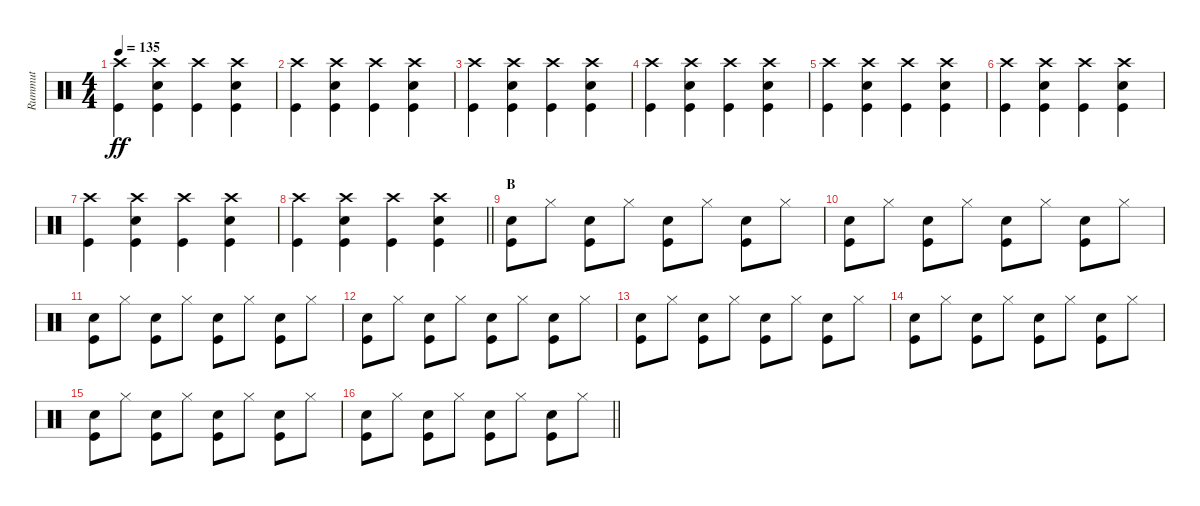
\track ("Rummut" "Rummut") {instrument percussion}
\staff {score}
\articulation defaults
\ts (4 4)
\tempo 135
\clef neutral
\ks c
("Crash high (hit)" "Kick (hit)").4{dy ff} ("Crash high (hit)" "Electric Snare (hit)" "Kick (hit)").4 ("Crash high (hit)" "Kick (hit)").4 ("Crash high (hit)" "Electric Snare (hit)" "Kick (hit)").4 |
("Crash high (hit)" "Kick (hit)").4 ("Crash high (hit)" "Electric Snare (hit)" "Kick (hit)").4 ("Crash high (hit)" "Kick (hit)").4 ("Crash high (hit)" "Electric Snare (hit)" "Kick (hit)").4 |
("Crash high (hit)" "Kick (hit)").4 ("Crash high (hit)" "Electric Snare (hit)" "Kick (hit)").4 ("Crash high (hit)" "Kick (hit)").4 ("Crash high (hit)" "Electric Snare (hit)" "Kick (hit)").4 |
("Crash high (hit)" "Kick (hit)").4 ("Crash high (hit)" "Electric Snare (hit)" "Kick (hit)").4 ("Crash high (hit)" "Kick (hit)").4 ("Crash high (hit)" "Electric Snare (hit)" "Kick (hit)").4 |
("Crash high (hit)" "Kick (hit)").4 ("Crash high (hit)" "Electric Snare (hit)" "Kick (hit)").4 ("Crash high (hit)" "Kick (hit)").4 ("Crash high (hit)" "Electric Snare (hit)" "Kick (hit)").4 |
("Crash high (hit)" "Kick (hit)").4 ("Crash high (hit)" "Electric Snare (hit)" "Kick (hit)").4 ("Crash high (hit)" "Kick (hit)").4 ("Crash high (hit)" "Electric Snare (hit)" "Kick (hit)").4 |
("Crash high (hit)" "Kick (hit)").4 ("Crash high (hit)" "Electric Snare (hit)" "Kick (hit)").4 ("Crash high (hit)" "Kick (hit)").4 ("Crash high (hit)" "Electric Snare (hit)" "Kick (hit)").4 |
\barLineRight lightlight
("Crash high (hit)" "Kick (hit)").4 ("Crash high (hit)" "Electric Snare (hit)" "Kick (hit)").4 ("Crash high (hit)" "Kick (hit)").4 ("Crash high (hit)" "Electric Snare (hit)" "Kick (hit)").4 |
\section ("" "B")
("Electric Snare (hit)" "Kick (hit)").8 "Hi-Hat (closed)".8 ("Electric Snare (hit)" "Kick (hit)").8 "Hi-Hat (closed)".8 ("Electric Snare (hit)" "Kick (hit)").8 "Hi-Hat (closed)".8 ("Electric Snare (hit)" "Kick (hit)").8 "Hi-Hat (closed)".8 |
("Electric Snare (hit)" "Kick (hit)").8 "Hi-Hat (closed)".8 ("Electric Snare (hit)" "Kick (hit)").8 "Hi-Hat (closed)".8 ("Electric Snare (hit)" "Kick (hit)").8 "Hi-Hat (closed)".8 ("Electric Snare (hit)" "Kick (hit)").8 "Hi-Hat (closed)".8 |
("Electric Snare (hit)" "Kick (hit)").8 "Hi-Hat (closed)".8 ("Electric Snare (hit)" "Kick (hit)").8 "Hi-Hat (closed)".8 ("Electric Snare (hit)" "Kick (hit)").8 "Hi-Hat (closed)".8 ("Electric Snare (hit)" "Kick (hit)").8 "Hi-Hat (closed)".8 |
("Electric Snare (hit)" "Kick (hit)").8 "Hi-Hat (closed)".8 ("Electric Snare (hit)" "Kick (hit)").8 "Hi-Hat (closed)".8 ("Electric Snare (hit)" "Kick (hit)").8 "Hi-Hat (closed)".8 ("Electric Snare (hit)" "Kick (hit)").8 "Hi-Hat (closed)".8 |
("Electric Snare (hit)" "Kick (hit)").8 "Hi-Hat (closed)".8 ("Electric Snare (hit)" "Kick (hit)").8 "Hi-Hat (closed)".8 ("Electric Snare (hit)" "Kick (hit)").8 "Hi-Hat (closed)".8 ("Electric Snare (hit)" "Kick (hit)").8 "Hi-Hat (closed)".8 |
("Electric Snare (hit)" "Kick (hit)").8 "Hi-Hat (closed)".8 ("Electric Snare (hit)" "Kick (hit)").8 "Hi-Hat (closed)".8 ("Electric Snare (hit)" "Kick (hit)").8 "Hi-Hat (closed)".8 ("Electric Snare (hit)" "Kick (hit)").8 "Hi-Hat (closed)".8 |
("Electric Snare (hit)" "Kick (hit)").8 "Hi-Hat (closed)".8 ("Electric Snare (hit)" "Kick (hit)").8 "Hi-Hat (closed)".8 ("Electric Snare (hit)" "Kick (hit)").8 "Hi-Hat (closed)".8 ("Electric Snare (hit)" "Kick (hit)").8 "Hi-Hat (closed)".8 |
\barLineRight lightlight
("Electric Snare (hit)" "Kick (hit)").8 "Hi-Hat (closed)".8 ("Electric Snare (hit)" "Kick (hit)").8 "Hi-Hat (closed)".8 ("Electric Snare (hit)" "Kick (hit)").8 "Hi-Hat (closed)".8 ("Electric Snare (hit)" "Kick (hit)").8 "Hi-Hat (closed)".8
